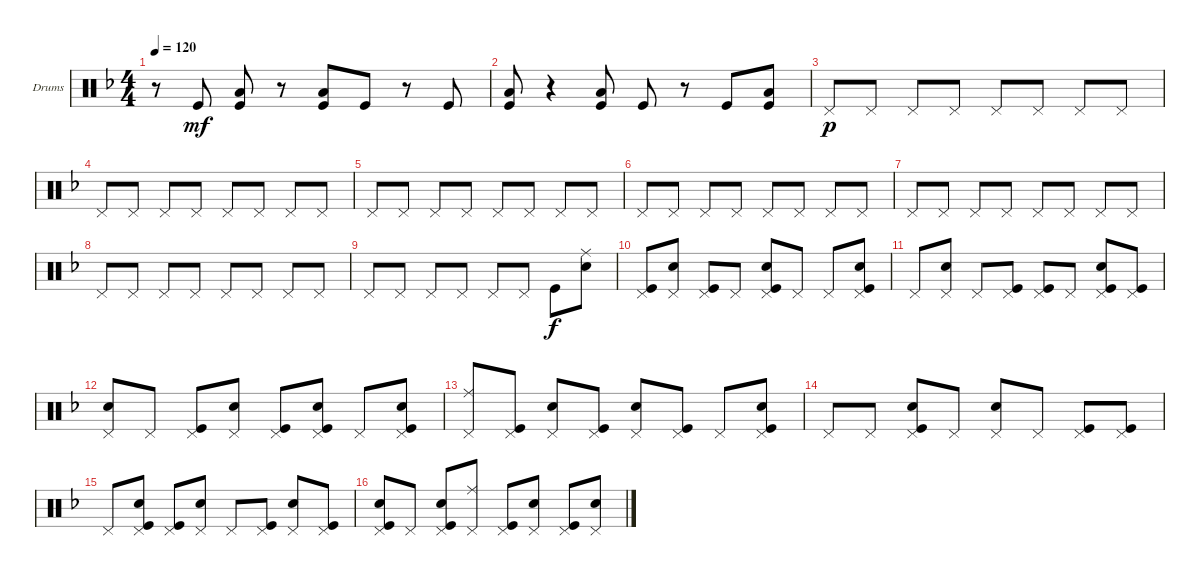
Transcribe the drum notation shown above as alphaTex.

\defaultSystemsLayout 4
\bracketExtendMode groupsimilarinstruments
\firstSystemTrackNameOrientation horizontal
\otherSystemsTrackNameOrientation horizontal
\track ("Drumkit" "Drums") {instrument percussion}
\staff {score}
\articulation defaults
\ts (4 4)
\tempo 120
\clef neutral
\ks f
r.8{dy mf} "Kick (hit)".8 ("Low Tom (hit)" "Kick (hit)").8 r.8 ("Low Tom (hit)" "Kick (hit)").8 "Kick (hit)".8 r.8 "Kick (hit)".8 |
("Kick (hit)" "Low Tom (hit)").8 r.4 ("Low Tom (hit)" "Kick (hit)").8 "Kick (hit)".8 r.8 "Kick (hit)".8 ("Kick (hit)" "Low Tom (hit)").8 |
"Pedal Hi-Hat (hit)".8{dy p} "Pedal Hi-Hat (hit)".8 "Pedal Hi-Hat (hit)".8 "Pedal Hi-Hat (hit)".8 "Pedal Hi-Hat (hit)".8 "Pedal Hi-Hat (hit)".8 "Pedal Hi-Hat (hit)".8 "Pedal Hi-Hat (hit)".8 |
"Pedal Hi-Hat (hit)".8 "Pedal Hi-Hat (hit)".8 "Pedal Hi-Hat (hit)".8 "Pedal Hi-Hat (hit)".8 "Pedal Hi-Hat (hit)".8 "Pedal Hi-Hat (hit)".8 "Pedal Hi-Hat (hit)".8 "Pedal Hi-Hat (hit)".8 |
"Pedal Hi-Hat (hit)".8 "Pedal Hi-Hat (hit)".8 "Pedal Hi-Hat (hit)".8 "Pedal Hi-Hat (hit)".8 "Pedal Hi-Hat (hit)".8 "Pedal Hi-Hat (hit)".8 "Pedal Hi-Hat (hit)".8 "Pedal Hi-Hat (hit)".8 |
"Pedal Hi-Hat (hit)".8 "Pedal Hi-Hat (hit)".8 "Pedal Hi-Hat (hit)".8 "Pedal Hi-Hat (hit)".8 "Pedal Hi-Hat (hit)".8 "Pedal Hi-Hat (hit)".8 "Pedal Hi-Hat (hit)".8 "Pedal Hi-Hat (hit)".8 |
"Pedal Hi-Hat (hit)".8 "Pedal Hi-Hat (hit)".8 "Pedal Hi-Hat (hit)".8 "Pedal Hi-Hat (hit)".8 "Pedal Hi-Hat (hit)".8 "Pedal Hi-Hat (hit)".8 "Pedal Hi-Hat (hit)".8 "Pedal Hi-Hat (hit)".8 |
"Pedal Hi-Hat (hit)".8 "Pedal Hi-Hat (hit)".8 "Pedal Hi-Hat (hit)".8 "Pedal Hi-Hat (hit)".8 "Pedal Hi-Hat (hit)".8 "Pedal Hi-Hat (hit)".8 "Pedal Hi-Hat (hit)".8 "Pedal Hi-Hat (hit)".8 |
"Pedal Hi-Hat (hit)".8 "Pedal Hi-Hat (hit)".8 "Pedal Hi-Hat (hit)".8 "Pedal Hi-Hat (hit)".8 "Pedal Hi-Hat (hit)".8 "Pedal Hi-Hat (hit)".8 "Kick (hit)".8{dy f} ("Ride (middle)" "Snare (hit) 2").8 |
("Pedal Hi-Hat (hit)" "Kick (hit)").8 ("Pedal Hi-Hat (hit)" "Snare (hit) 2").8 ("Pedal Hi-Hat (hit)" "Kick (hit)").8 "Pedal Hi-Hat (hit)".8 ("Pedal Hi-Hat (hit)" "Kick (hit)" "Snare (hit) 2").8 "Pedal Hi-Hat (hit)".8 "Pedal Hi-Hat (hit)".8 ("Pedal Hi-Hat (hit)" "Kick (hit)" "Snare (hit) 2").8 |
"Pedal Hi-Hat (hit)".8 ("Pedal Hi-Hat (hit)" "Snare (hit) 2").8 "Pedal Hi-Hat (hit)".8 ("Pedal Hi-Hat (hit)" "Kick (hit)").8 ("Pedal Hi-Hat (hit)" "Kick (hit)").8 "Pedal Hi-Hat (hit)".8 ("Pedal Hi-Hat (hit)" "Snare (hit) 2" "Kick (hit)").8 ("Pedal Hi-Hat (hit)" "Kick (hit)").8 |
("Pedal Hi-Hat (hit)" "Snare (hit) 2").8 "Pedal Hi-Hat (hit)".8 ("Pedal Hi-Hat (hit)" "Kick (hit)").8 ("Pedal Hi-Hat (hit)" "Snare (hit) 2").8 ("Pedal Hi-Hat (hit)" "Kick (hit)").8 ("Pedal Hi-Hat (hit)" "Kick (hit)" "Snare (hit) 2").8 "Pedal Hi-Hat (hit)".8 ("Pedal Hi-Hat (hit)" "Snare (hit) 2" "Kick (hit)").8 |
("Pedal Hi-Hat (hit)" "Ride (middle)").8 ("Pedal Hi-Hat (hit)" "Kick (hit)").8 ("Pedal Hi-Hat (hit)" "Snare (hit) 2").8 ("Pedal Hi-Hat (hit)" "Kick (hit)").8 ("Pedal Hi-Hat (hit)" "Snare (hit) 2").8 ("Pedal Hi-Hat (hit)" "Kick (hit)").8 "Pedal Hi-Hat (hit)".8 ("Pedal Hi-Hat (hit)" "Kick (hit)" "Snare (hit) 2").8 |
"Pedal Hi-Hat (hit)".8 "Pedal Hi-Hat (hit)".8 ("Pedal Hi-Hat (hit)" "Snare (hit) 2" "Kick (hit)").8 "Pedal Hi-Hat (hit)".8 ("Pedal Hi-Hat (hit)" "Snare (hit) 2").8 "Pedal Hi-Hat (hit)".8 ("Pedal Hi-Hat (hit)" "Kick (hit)").8 ("Pedal Hi-Hat (hit)" "Kick (hit)").8 |
"Pedal Hi-Hat (hit)".8 ("Pedal Hi-Hat (hit)" "Kick (hit)" "Snare (hit) 2").8 ("Pedal Hi-Hat (hit)" "Kick (hit)").8 ("Pedal Hi-Hat (hit)" "Snare (hit) 2").8 "Pedal Hi-Hat (hit)".8 ("Pedal Hi-Hat (hit)" "Kick (hit)").8 ("Pedal Hi-Hat (hit)" "Snare (hit) 2").8 ("Pedal Hi-Hat (hit)" "Kick (hit)").8 |
("Pedal Hi-Hat (hit)" "Kick (hit)" "Snare (hit) 2").8 "Pedal Hi-Hat (hit)".8 ("Pedal Hi-Hat (hit)" "Kick (hit)" "Snare (hit) 2").8 ("Pedal Hi-Hat (hit)" "Ride (middle)").8 ("Pedal Hi-Hat (hit)" "Kick (hit)").8 ("Pedal Hi-Hat (hit)" "Snare (hit) 2").8 ("Pedal Hi-Hat (hit)" "Kick (hit)").8 ("Pedal Hi-Hat (hit)" "Snare (hit) 2").8
